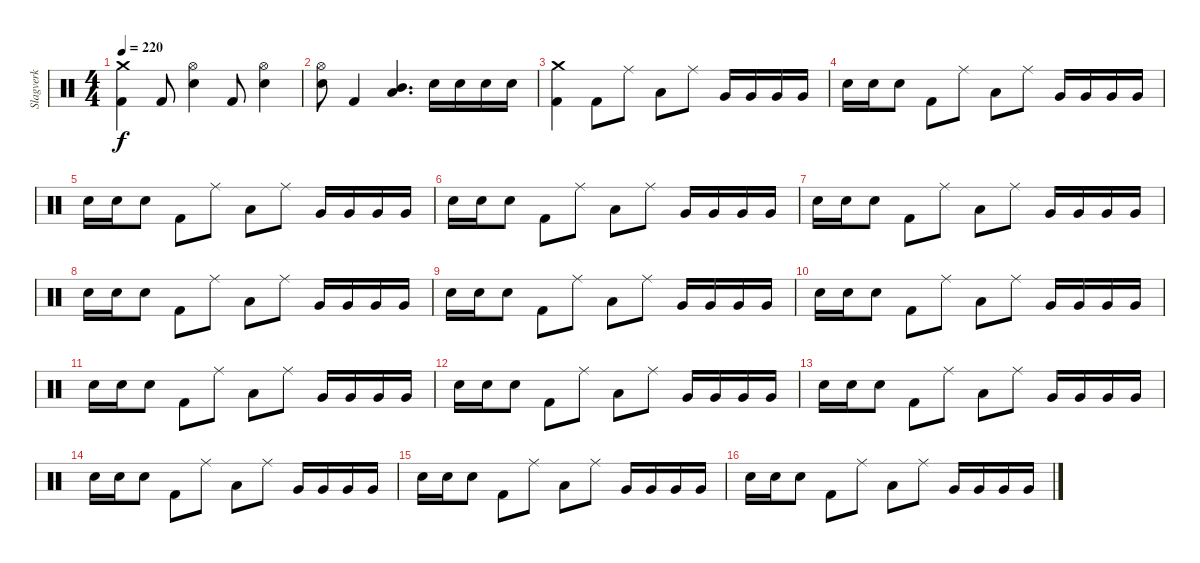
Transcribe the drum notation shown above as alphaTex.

\track ("Slagverk" "Slagverk") {instrument percussion}
\staff {score}
\articulation defaults
\ts (4 4)
\tempo 220
\clef neutral
\ks c
("Crash medium (hit)" "Kick (hit) 2").4{dy f} "Kick (hit) 2".8 ("Electric Snare (hit)" "Hi-Hat (open)").4 "Kick (hit) 2".8 ("Electric Snare (hit)" "Hi-Hat (open)").4 |
("Electric Snare (hit)" "Hi-Hat (open)").8 "Kick (hit) 2".4 ("Mid Tom (hit)" "Low Tom (hit)").4{d} "Electric Snare (hit)".16 "Electric Snare (hit)".16 "Electric Snare (hit)".16 "Electric Snare (hit)".16 |
("Crash medium (hit)" "Kick (hit) 2").4 "Kick (hit) 2".8 "Ride (middle)".8 "Low Tom (hit)".8 "Ride (middle)".8 "Very Low Tom (hit)".16 "Very Low Tom (hit)".16 "Very Low Tom (hit)".16 "Very Low Tom (hit)".16 |
"Electric Snare (hit)".16 "Electric Snare (hit)".16 "Electric Snare (hit)".8 "Kick (hit) 2".8 "Ride (middle)".8 "Low Tom (hit)".8 "Ride (middle)".8 "Very Low Tom (hit)".16 "Very Low Tom (hit)".16 "Very Low Tom (hit)".16 "Very Low Tom (hit)".16 |
"Electric Snare (hit)".16 "Electric Snare (hit)".16 "Electric Snare (hit)".8 "Kick (hit) 2".8 "Ride (middle)".8 "Low Tom (hit)".8 "Ride (middle)".8 "Very Low Tom (hit)".16 "Very Low Tom (hit)".16 "Very Low Tom (hit)".16 "Very Low Tom (hit)".16 |
"Electric Snare (hit)".16 "Electric Snare (hit)".16 "Electric Snare (hit)".8 "Kick (hit) 2".8 "Ride (middle)".8 "Low Tom (hit)".8 "Ride (middle)".8 "Very Low Tom (hit)".16 "Very Low Tom (hit)".16 "Very Low Tom (hit)".16 "Very Low Tom (hit)".16 |
"Electric Snare (hit)".16 "Electric Snare (hit)".16 "Electric Snare (hit)".8 "Kick (hit) 2".8 "Ride (middle)".8 "Low Tom (hit)".8 "Ride (middle)".8 "Very Low Tom (hit)".16 "Very Low Tom (hit)".16 "Very Low Tom (hit)".16 "Very Low Tom (hit)".16 |
"Electric Snare (hit)".16 "Electric Snare (hit)".16 "Electric Snare (hit)".8 "Kick (hit) 2".8 "Ride (middle)".8 "Low Tom (hit)".8 "Ride (middle)".8 "Very Low Tom (hit)".16 "Very Low Tom (hit)".16 "Very Low Tom (hit)".16 "Very Low Tom (hit)".16 |
"Electric Snare (hit)".16 "Electric Snare (hit)".16 "Electric Snare (hit)".8 "Kick (hit) 2".8 "Ride (middle)".8 "Low Tom (hit)".8 "Ride (middle)".8 "Very Low Tom (hit)".16 "Very Low Tom (hit)".16 "Very Low Tom (hit)".16 "Very Low Tom (hit)".16 |
"Electric Snare (hit)".16 "Electric Snare (hit)".16 "Electric Snare (hit)".8 "Kick (hit) 2".8 "Ride (middle)".8 "Low Tom (hit)".8 "Ride (middle)".8 "Very Low Tom (hit)".16 "Very Low Tom (hit)".16 "Very Low Tom (hit)".16 "Very Low Tom (hit)".16 |
"Electric Snare (hit)".16 "Electric Snare (hit)".16 "Electric Snare (hit)".8 "Kick (hit) 2".8 "Ride (middle)".8 "Low Tom (hit)".8 "Ride (middle)".8 "Very Low Tom (hit)".16 "Very Low Tom (hit)".16 "Very Low Tom (hit)".16 "Very Low Tom (hit)".16 |
"Electric Snare (hit)".16 "Electric Snare (hit)".16 "Electric Snare (hit)".8 "Kick (hit) 2".8 "Ride (middle)".8 "Low Tom (hit)".8 "Ride (middle)".8 "Very Low Tom (hit)".16 "Very Low Tom (hit)".16 "Very Low Tom (hit)".16 "Very Low Tom (hit)".16 |
"Electric Snare (hit)".16 "Electric Snare (hit)".16 "Electric Snare (hit)".8 "Kick (hit) 2".8 "Ride (middle)".8 "Low Tom (hit)".8 "Ride (middle)".8 "Very Low Tom (hit)".16 "Very Low Tom (hit)".16 "Very Low Tom (hit)".16 "Very Low Tom (hit)".16 |
"Electric Snare (hit)".16 "Electric Snare (hit)".16 "Electric Snare (hit)".8 "Kick (hit) 2".8 "Ride (middle)".8 "Low Tom (hit)".8 "Ride (middle)".8 "Very Low Tom (hit)".16 "Very Low Tom (hit)".16 "Very Low Tom (hit)".16 "Very Low Tom (hit)".16 |
"Electric Snare (hit)".16 "Electric Snare (hit)".16 "Electric Snare (hit)".8 "Kick (hit) 2".8 "Ride (middle)".8 "Low Tom (hit)".8 "Ride (middle)".8 "Very Low Tom (hit)".16 "Very Low Tom (hit)".16 "Very Low Tom (hit)".16 "Very Low Tom (hit)".16 |
"Electric Snare (hit)".16 "Electric Snare (hit)".16 "Electric Snare (hit)".8 "Kick (hit) 2".8 "Ride (middle)".8 "Low Tom (hit)".8 "Ride (middle)".8 "Very Low Tom (hit)".16 "Very Low Tom (hit)".16 "Very Low Tom (hit)".16 "Very Low Tom (hit)".16
